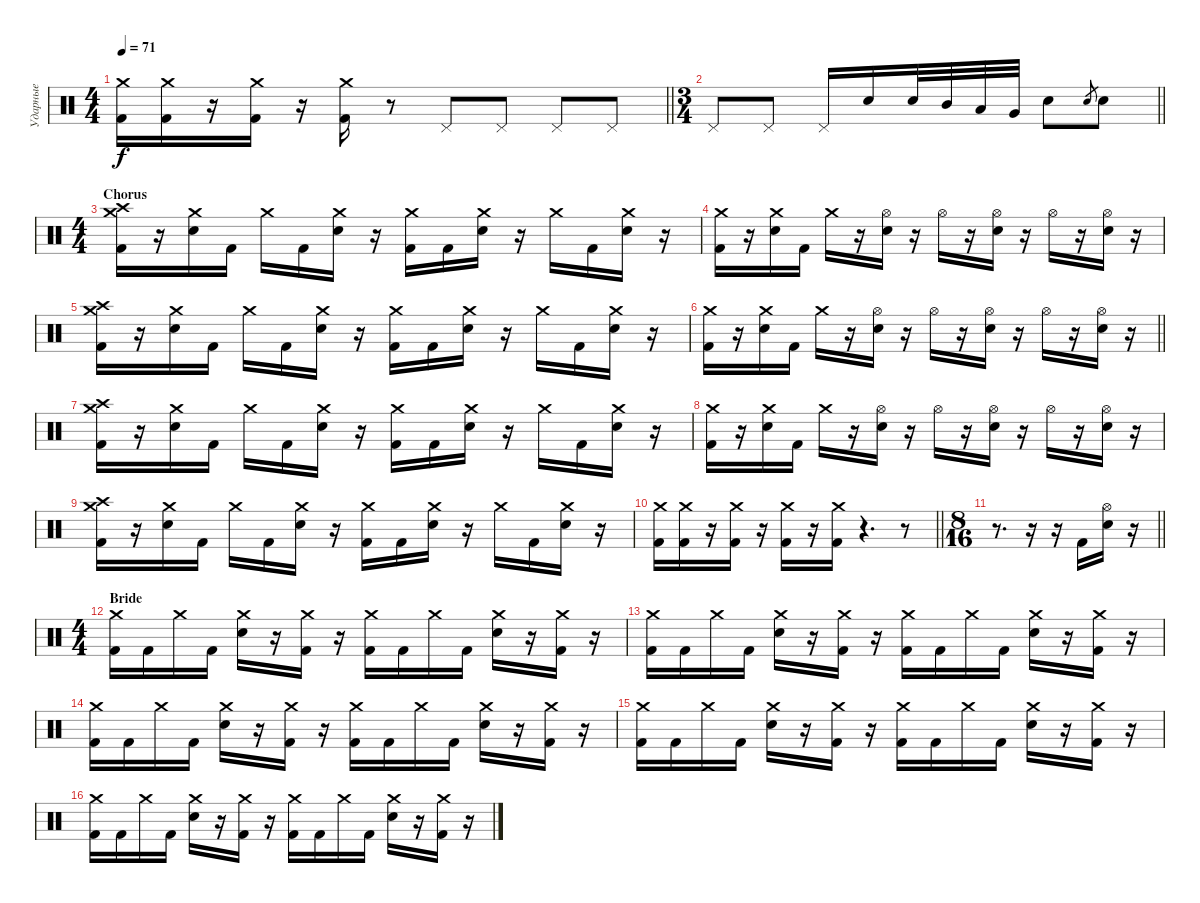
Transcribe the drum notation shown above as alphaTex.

\track ("Ударные" "Ударные") {instrument percussion}
\staff {score}
\articulation defaults
\ts (4 4)
\tempo 71
\clef neutral
\barLineRight lightlight
\ks c
("Crash medium (hit)" "Kick (hit) 2").16{dy f} ("Crash medium (hit)" "Kick (hit) 2").16 r.16 ("Crash medium (hit)" "Kick (hit) 2").16 r.16 ("Crash medium (hit)" "Kick (hit) 2").16 r.8 "Pedal Hi-Hat (hit)".8 "Pedal Hi-Hat (hit)".8 "Pedal Hi-Hat (hit)".8 "Pedal Hi-Hat (hit)".8 |
\ts (3 4)
\barLineRight lightlight "Pedal Hi-Hat (hit)".8 "Pedal Hi-Hat (hit)".8 "Pedal Hi-Hat (hit)".16 "Electric Snare (hit)".16 "Electric Snare (hit)".32 "Mid Tom (hit)".32 "Low Tom (hit)".32 "Very Low Tom (hit)".32 "Electric Snare (hit)".8 "Electric Snare (hit)".8{gr} "Electric Snare (hit)".8
|
\ts (4 4)
\section ("" "Chorus")
("Crash medium (hit)" "Crash high (hit)" "Kick (hit) 2").16 r.16 ("Crash medium (hit)" "Electric Snare (hit)").16 "Kick (hit) 2".16 "Crash medium (hit)".16 "Kick (hit) 2".16 ("Crash medium (hit)" "Electric Snare (hit)").16 r.16 ("Crash medium (hit)" "Kick (hit) 2").16 "Kick (hit) 2".16 ("Crash medium (hit)" "Electric Snare (hit)").16 r.16 "Crash medium (hit)".16 "Kick (hit) 2".16 ("Crash medium (hit)" "Electric Snare (hit)").16 r.16 |
("Crash medium (hit)" "Kick (hit) 2").16 r.16 ("Crash medium (hit)" "Electric Snare (hit)").16 "Kick (hit) 2".16 "Crash medium (hit)".16 r.16 ("Hi-Hat (open)" "Electric Snare (hit)").16 r.16 "Hi-Hat (open)".16 r.16 ("Hi-Hat (open)" "Electric Snare (hit)").16 r.16 "Hi-Hat (open)".16 r.16 ("Hi-Hat (open)" "Electric Snare (hit)").16 r.16 |
("Crash medium (hit)" "Crash high (hit)" "Kick (hit) 2").16 r.16 ("Crash medium (hit)" "Electric Snare (hit)").16 "Kick (hit) 2".16 "Crash medium (hit)".16 "Kick (hit) 2".16 ("Crash medium (hit)" "Electric Snare (hit)").16 r.16 ("Crash medium (hit)" "Kick (hit) 2").16 "Kick (hit) 2".16 ("Crash medium (hit)" "Electric Snare (hit)").16 r.16 "Crash medium (hit)".16 "Kick (hit) 2".16 ("Crash medium (hit)" "Electric Snare (hit)").16 r.16 |
\barLineRight lightlight
("Crash medium (hit)" "Kick (hit) 2").16 r.16 ("Crash medium (hit)" "Electric Snare (hit)").16 "Kick (hit) 2".16 "Crash medium (hit)".16 r.16 ("Hi-Hat (open)" "Electric Snare (hit)").16 r.16 "Hi-Hat (open)".16 r.16 ("Hi-Hat (open)" "Electric Snare (hit)").16 r.16 "Hi-Hat (open)".16 r.16 ("Hi-Hat (open)" "Electric Snare (hit)").16 r.16 |
("Crash medium (hit)" "Crash high (hit)" "Kick (hit) 2").16 r.16 ("Crash medium (hit)" "Electric Snare (hit)").16 "Kick (hit) 2".16 "Crash medium (hit)".16 "Kick (hit) 2".16 ("Crash medium (hit)" "Electric Snare (hit)").16 r.16 ("Crash medium (hit)" "Kick (hit) 2").16 "Kick (hit) 2".16 ("Crash medium (hit)" "Electric Snare (hit)").16 r.16 "Crash medium (hit)".16 "Kick (hit) 2".16 ("Crash medium (hit)" "Electric Snare (hit)").16 r.16 |
("Crash medium (hit)" "Kick (hit) 2").16 r.16 ("Crash medium (hit)" "Electric Snare (hit)").16 "Kick (hit) 2".16 "Crash medium (hit)".16 r.16 ("Hi-Hat (open)" "Electric Snare (hit)").16 r.16 "Hi-Hat (open)".16 r.16 ("Hi-Hat (open)" "Electric Snare (hit)").16 r.16 "Hi-Hat (open)".16 r.16 ("Hi-Hat (open)" "Electric Snare (hit)").16 r.16 |
("Crash medium (hit)" "Crash high (hit)" "Kick (hit) 2").16 r.16 ("Crash medium (hit)" "Electric Snare (hit)").16 "Kick (hit) 2".16 "Crash medium (hit)".16 "Kick (hit) 2".16 ("Crash medium (hit)" "Electric Snare (hit)").16 r.16 ("Crash medium (hit)" "Kick (hit) 2").16 "Kick (hit) 2".16 ("Crash medium (hit)" "Electric Snare (hit)").16 r.16 "Crash medium (hit)".16 "Kick (hit) 2".16 ("Crash medium (hit)" "Electric Snare (hit)").16 r.16 |
\barLineRight lightlight
("Crash medium (hit)" "Kick (hit) 2").16 ("Crash medium (hit)" "Kick (hit) 2").16 r.16 ("Crash medium (hit)" "Kick (hit) 2").16 r.16 ("Crash medium (hit)" "Kick (hit) 2").16 r.16 ("Crash medium (hit)" "Kick (hit) 2").16 r.4{d} r.8 |
\ts (8 16)
\barLineRight lightlight
r.8{d} r.16 r.16 "Kick (hit) 2".16 ("Hi-Hat (open)" "Electric Snare (hit)").16 r.16 |
\ts (4 4)
\section ("" "Bride")
("Crash medium (hit)" "Kick (hit) 2").16 "Kick (hit) 2".16 "Crash medium (hit)".16 "Kick (hit) 2".16 ("Crash medium (hit)" "Electric Snare (hit)").16 r.16 ("Crash medium (hit)" "Kick (hit) 2").16 r.16 ("Crash medium (hit)" "Kick (hit) 2").16 "Kick (hit) 2".16 "Crash medium (hit)".16 "Kick (hit) 2".16 ("Crash medium (hit)" "Electric Snare (hit)").16 r.16 ("Crash medium (hit)" "Kick (hit) 2").16 r.16 |
("Crash medium (hit)" "Kick (hit) 2").16 "Kick (hit) 2".16 "Crash medium (hit)".16 "Kick (hit) 2".16 ("Crash medium (hit)" "Electric Snare (hit)").16 r.16 ("Crash medium (hit)" "Kick (hit) 2").16 r.16 ("Crash medium (hit)" "Kick (hit) 2").16 "Kick (hit) 2".16 "Crash medium (hit)".16 "Kick (hit) 2".16 ("Crash medium (hit)" "Electric Snare (hit)").16 r.16 ("Crash medium (hit)" "Kick (hit) 2").16 r.16 |
("Crash medium (hit)" "Kick (hit) 2").16 "Kick (hit) 2".16 "Crash medium (hit)".16 "Kick (hit) 2".16 ("Crash medium (hit)" "Electric Snare (hit)").16 r.16 ("Crash medium (hit)" "Kick (hit) 2").16 r.16 ("Crash medium (hit)" "Kick (hit) 2").16 "Kick (hit) 2".16 "Crash medium (hit)".16 "Kick (hit) 2".16 ("Crash medium (hit)" "Electric Snare (hit)").16 r.16 ("Crash medium (hit)" "Kick (hit) 2").16 r.16 |
("Crash medium (hit)" "Kick (hit) 2").16 "Kick (hit) 2".16 "Crash medium (hit)".16 "Kick (hit) 2".16 ("Crash medium (hit)" "Electric Snare (hit)").16 r.16 ("Crash medium (hit)" "Kick (hit) 2").16 r.16 ("Crash medium (hit)" "Kick (hit) 2").16 "Kick (hit) 2".16 "Crash medium (hit)".16 "Kick (hit) 2".16 ("Crash medium (hit)" "Electric Snare (hit)").16 r.16 ("Crash medium (hit)" "Kick (hit) 2").16 r.16 |
("Crash medium (hit)" "Kick (hit) 2").16 "Kick (hit) 2".16 "Crash medium (hit)".16 "Kick (hit) 2".16 ("Crash medium (hit)" "Electric Snare (hit)").16 r.16 ("Crash medium (hit)" "Kick (hit) 2").16 r.16 ("Crash medium (hit)" "Kick (hit) 2").16 "Kick (hit) 2".16 "Crash medium (hit)".16 "Kick (hit) 2".16 ("Crash medium (hit)" "Electric Snare (hit)").16 r.16 ("Crash medium (hit)" "Kick (hit) 2").16 r.16
